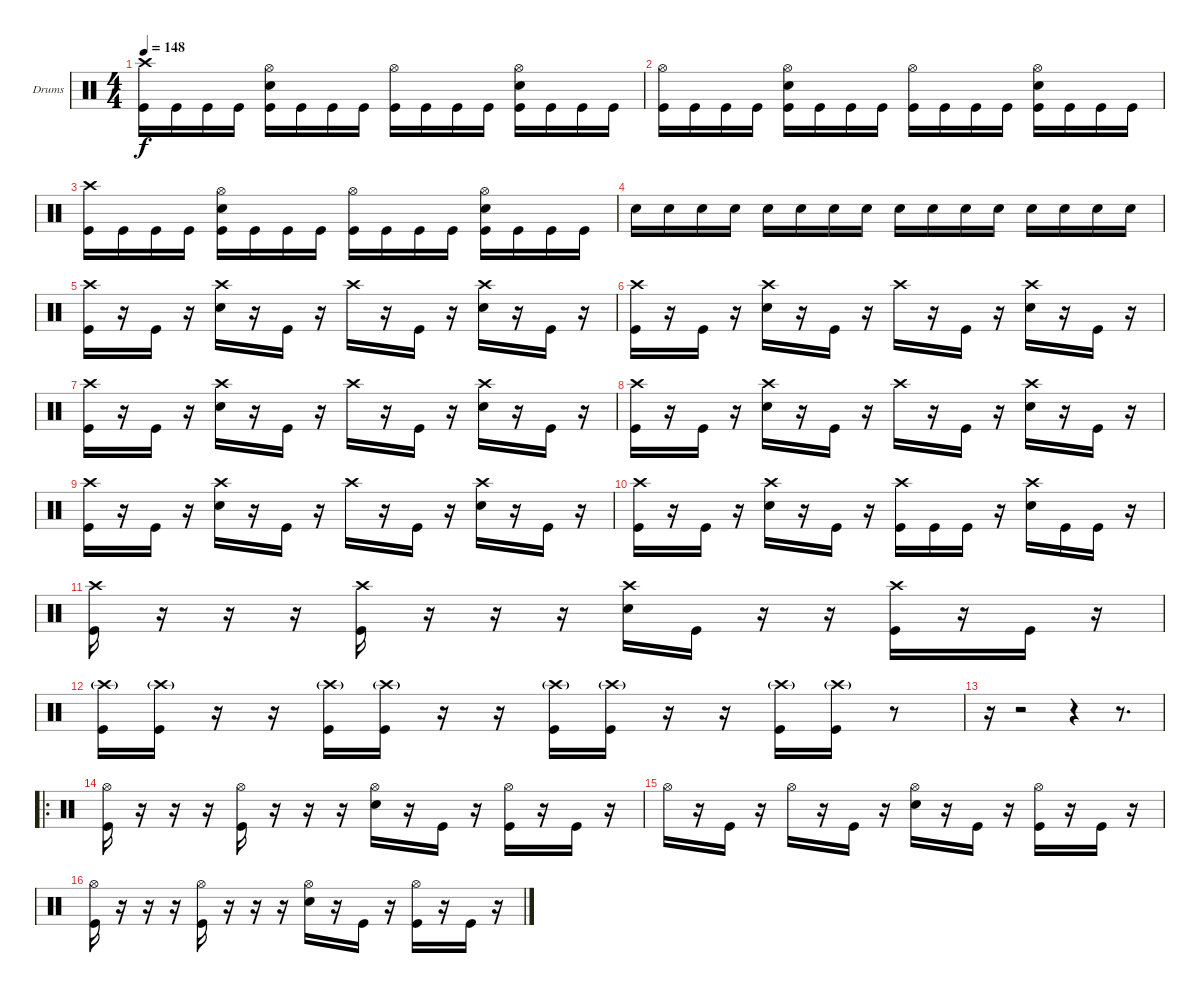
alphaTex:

\bracketExtendMode groupsimilarinstruments
\firstSystemTrackNameOrientation horizontal
\otherSystemsTrackNameOrientation horizontal
\track ("Drumkit" "Drums") {instrument percussion}
\staff {score}
\articulation defaults
\ts (4 4)
\beaming (8 2 2 2 2)
\tempo 148
\clef neutral
\ks c
("Kick (hit)" "Crash high (hit)").16{dy f} "Kick (hit)".16 "Kick (hit)".16 "Kick (hit)".16 ("Snare (hit) 2" "Kick (hit)" "Hi-Hat (open)").16 "Kick (hit)".16 "Kick (hit)".16 "Kick (hit)".16 ("Hi-Hat (open)" "Kick (hit)").16 "Kick (hit)".16 "Kick (hit)".16 "Kick (hit)".16 ("Snare (hit) 2" "Hi-Hat (open)" "Kick (hit)").16 "Kick (hit)".16 "Kick (hit)".16 "Kick (hit)".16 |
("Kick (hit)" "Hi-Hat (open)").16 "Kick (hit)".16 "Kick (hit)".16 "Kick (hit)".16 ("Snare (hit) 2" "Kick (hit)" "Hi-Hat (open)").16 "Kick (hit)".16 "Kick (hit)".16 "Kick (hit)".16 ("Hi-Hat (open)" "Kick (hit)").16 "Kick (hit)".16 "Kick (hit)".16 "Kick (hit)".16 ("Snare (hit) 2" "Hi-Hat (open)" "Kick (hit)").16 "Kick (hit)".16 "Kick (hit)".16 "Kick (hit)".16 |
("Kick (hit)" "Crash high (hit)").16 "Kick (hit)".16 "Kick (hit)".16 "Kick (hit)".16 ("Snare (hit) 2" "Kick (hit)" "Hi-Hat (open)").16 "Kick (hit)".16 "Kick (hit)".16 "Kick (hit)".16 ("Hi-Hat (open)" "Kick (hit)").16 "Kick (hit)".16 "Kick (hit)".16 "Kick (hit)".16 ("Snare (hit) 2" "Hi-Hat (open)" "Kick (hit)").16 "Kick (hit)".16 "Kick (hit)".16 "Kick (hit)".16 |
"Snare (hit) 2".16 "Snare (hit) 2".16 "Snare (hit) 2".16 "Snare (hit) 2".16 "Snare (hit) 2".16 "Snare (hit) 2".16 "Snare (hit) 2".16 "Snare (hit) 2".16 "Snare (hit) 2".16 "Snare (hit) 2".16 "Snare (hit) 2".16 "Snare (hit) 2".16 "Snare (hit) 2".16 "Snare (hit) 2".16 "Snare (hit) 2".16 "Snare (hit) 2".16 |
("Kick (hit)" "Crash high (hit)").16 r.16 "Kick (hit)".16 r.16 ("Snare (hit) 2" "Crash high (hit)").16 r.16 "Kick (hit)".16 r.16 "Crash high (hit)".16 r.16 "Kick (hit)".16 r.16 ("Snare (hit) 2" "Crash high (hit)").16 r.16 "Kick (hit)".16 r.16 |
("Kick (hit)" "Crash high (hit)").16 r.16 "Kick (hit)".16 r.16 ("Snare (hit) 2" "Crash high (hit)").16 r.16 "Kick (hit)".16 r.16 "Crash high (hit)".16 r.16 "Kick (hit)".16 r.16 ("Snare (hit) 2" "Crash high (hit)").16 r.16 "Kick (hit)".16 r.16 |
("Kick (hit)" "Crash high (hit)").16 r.16 "Kick (hit)".16 r.16 ("Snare (hit) 2" "Crash high (hit)").16 r.16 "Kick (hit)".16 r.16 "Crash high (hit)".16 r.16 "Kick (hit)".16 r.16 ("Snare (hit) 2" "Crash high (hit)").16 r.16 "Kick (hit)".16 r.16 |
("Kick (hit)" "Crash high (hit)").16 r.16 "Kick (hit)".16 r.16 ("Snare (hit) 2" "Crash high (hit)").16 r.16 "Kick (hit)".16 r.16 "Crash high (hit)".16 r.16 "Kick (hit)".16 r.16 ("Snare (hit) 2" "Crash high (hit)").16 r.16 "Kick (hit)".16 r.16 |
("Kick (hit)" "Crash high (hit)").16 r.16 "Kick (hit)".16 r.16 ("Snare (hit) 2" "Crash high (hit)").16 r.16 "Kick (hit)".16 r.16 "Crash high (hit)".16 r.16 "Kick (hit)".16 r.16 ("Snare (hit) 2" "Crash high (hit)").16 r.16 "Kick (hit)".16 r.16 |
("Kick (hit)" "Crash high (hit)").16 r.16 "Kick (hit)".16 r.16 ("Snare (hit) 2" "Crash high (hit)").16 r.16 "Kick (hit)".16 r.16 ("Kick (hit)" "Crash high (hit)").16 "Kick (hit)".16 "Kick (hit)".16 r.16 ("Snare (hit) 2" "Crash high (hit)").16 "Kick (hit)".16 "Kick (hit)".16 r.16 |
("Kick (hit)" "Crash high (hit)").16 r.16 r.16 r.16 ("Kick (hit)" "Crash high (hit)").16 r.16 r.16 r.16 ("Snare (hit) 2" "Crash high (hit)").16 "Kick (hit)".16 r.16 r.16 ("Kick (hit)" "Crash high (hit)").16 r.16 "Kick (hit)".16 r.16 |
("Kick (hit)" "Crash high (hit)"{g}).16 ("Kick (hit)" "Crash high (hit)"{g}).16 r.16 r.16 ("Kick (hit)" "Crash high (hit)"{g}).16 ("Kick (hit)" "Crash high (hit)"{g}).16 r.16 r.16 ("Kick (hit)" "Crash high (hit)"{g}).16 ("Kick (hit)" "Crash high (hit)"{g}).16 r.16 r.16 ("Kick (hit)" "Crash high (hit)"{g}).16 ("Kick (hit)" "Crash high (hit)"{g}).16 r.8 |
r.16 r.2 r.4 r.8{d} |
\ro
("Hi-Hat (open)" "Kick (hit)").16 r.16 r.16 r.16 ("Hi-Hat (open)" "Kick (hit)").16 r.16 r.16 r.16 ("Hi-Hat (open)" "Snare (hit) 2").16 r.16 "Kick (hit)".16 r.16 ("Kick (hit)" "Hi-Hat (open)").16 r.16 "Kick (hit)".16 r.16 |
"Hi-Hat (open)".16 r.16 "Kick (hit)".16 r.16 "Hi-Hat (open)".16 r.16 "Kick (hit)".16 r.16 ("Snare (hit) 2" "Hi-Hat (open)").16 r.16 "Kick (hit)".16 r.16 ("Kick (hit)" "Hi-Hat (open)").16 r.16 "Kick (hit)".16 r.16 |
("Hi-Hat (open)" "Kick (hit)").16 r.16 r.16 r.16 ("Hi-Hat (open)" "Kick (hit)").16 r.16 r.16 r.16 ("Hi-Hat (open)" "Snare (hit) 2").16 r.16 "Kick (hit)".16 r.16 ("Kick (hit)" "Hi-Hat (open)").16 r.16 "Kick (hit)".16 r.16
